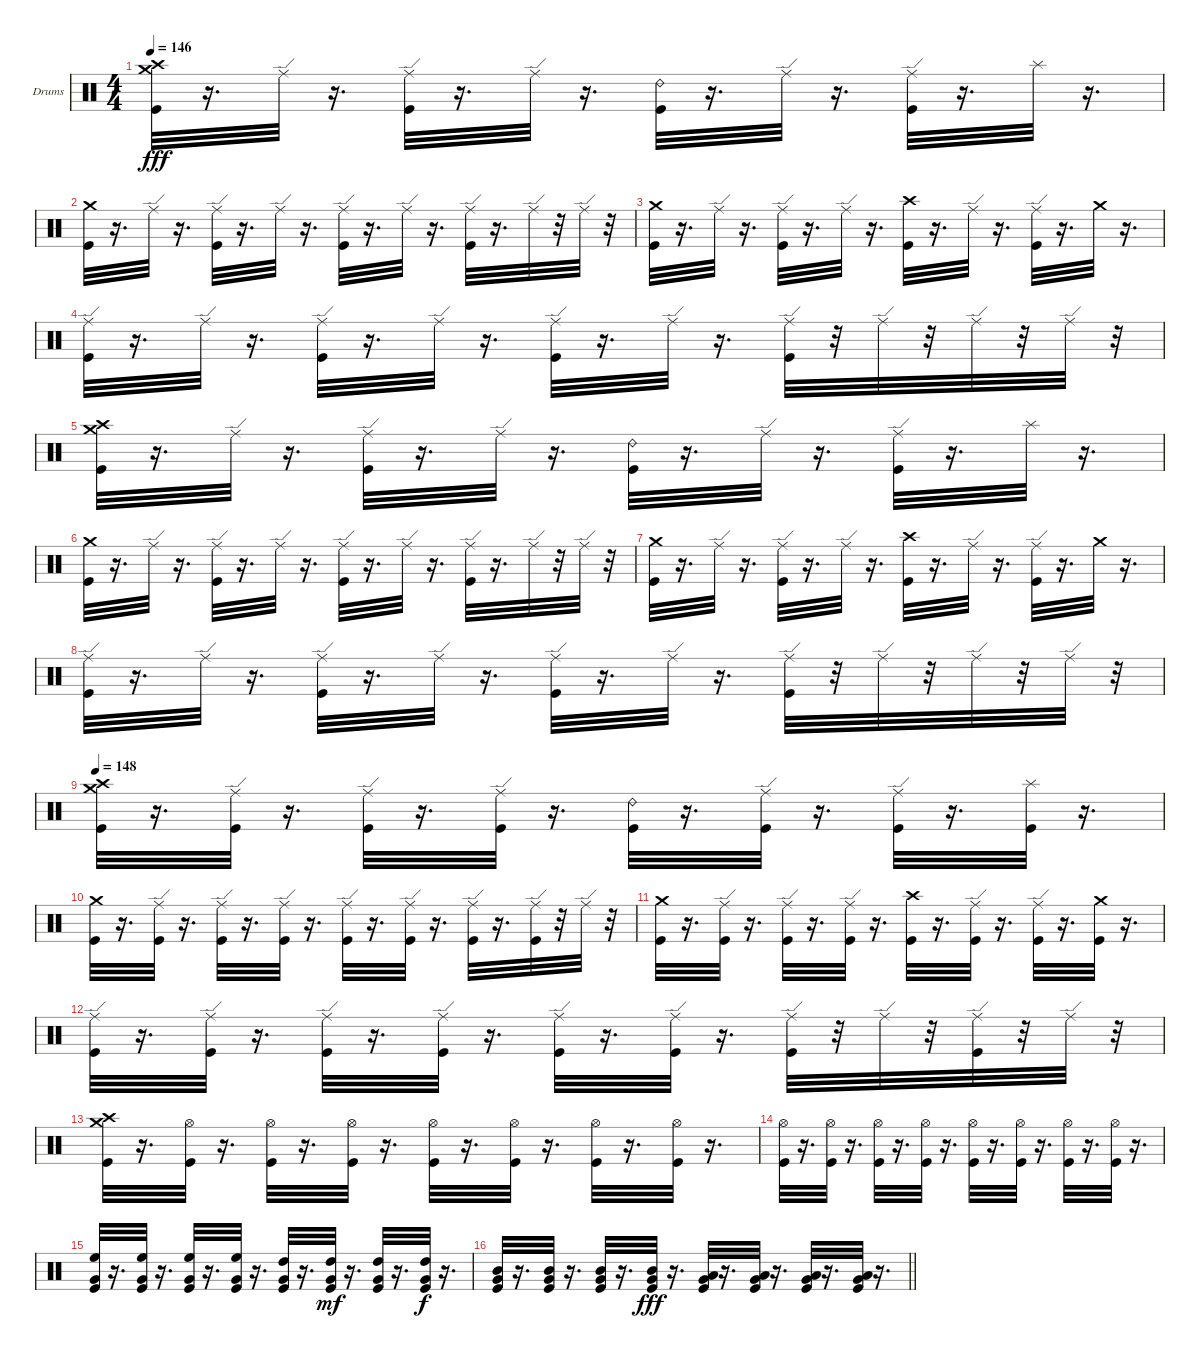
\bracketExtendMode groupsimilarinstruments
\firstSystemTrackNameOrientation horizontal
\otherSystemsTrackNameOrientation horizontal
\track ("Dave McClain" "Drums") {mute instrument percussion}
\staff {score}
\articulation defaults
\ts (4 4)
\tempo 146
\clef neutral
\ks c
("Crash high (hit)" "Crash medium (hit)" "Kick (hit)").32{dy fff} r.16{d} "Ride (edge)".32 r.16{d} ("Kick (hit)" "Ride (edge)").32 r.16{d} "Ride (edge)".32 r.16{d} ("Ride (bell) 2" "Kick (hit)").32 r.16{d} "Ride (edge)".32 r.16{d} ("Kick (hit)" "Ride (edge)").32 r.16{d} "Splash (hit)".32 r.16{d} |
("Crash medium (hit)" "Kick (hit)").32 r.16{d} "Ride (edge)".32 r.16{d} ("Kick (hit)" "Ride (edge)").32 r.16{d} "Ride (edge)".32 r.16{d} ("Kick (hit)" "Ride (edge)").32 r.16{d} "Ride (edge)".32 r.16{d} ("Kick (hit)" "Ride (edge)").32 r.16{d} "Ride (edge)".32 r.32 "Ride (edge)".32 r.32 |
("Crash medium (hit)" "Kick (hit)").32 r.16{d} "Ride (edge)".32 r.16{d} ("Kick (hit)" "Ride (edge)").32 r.16{d} "Ride (edge)".32 r.16{d} ("Crash high (hit)" "Kick (hit)").32 r.16{d} "Ride (edge)".32 r.16{d} ("Kick (hit)" "Ride (edge)").32 r.16{d} "Crash medium (hit)".32 r.16{d} |
("Ride (edge)" "Kick (hit)").32 r.16{d} "Ride (edge)".32 r.16{d} ("Kick (hit)" "Ride (edge)").32 r.16{d} "Ride (edge)".32 r.16{d} ("Kick (hit)" "Ride (edge)").32 r.16{d} "Ride (edge)".32 r.16{d} ("Kick (hit)" "Ride (edge)").32 r.32 "Ride (edge)".32 r.32 "Ride (edge)".32 r.32 "Ride (edge)".32 r.32 |
("Crash high (hit)" "Crash medium (hit)" "Kick (hit)").32 r.16{d} "Ride (edge)".32 r.16{d} ("Kick (hit)" "Ride (edge)").32 r.16{d} "Ride (edge)".32 r.16{d} ("Ride (bell) 2" "Kick (hit)").32 r.16{d} "Ride (edge)".32 r.16{d} ("Kick (hit)" "Ride (edge)").32 r.16{d} "Splash (hit)".32 r.16{d} |
("Crash medium (hit)" "Kick (hit)").32 r.16{d} "Ride (edge)".32 r.16{d} ("Kick (hit)" "Ride (edge)").32 r.16{d} "Ride (edge)".32 r.16{d} ("Kick (hit)" "Ride (edge)").32 r.16{d} "Ride (edge)".32 r.16{d} ("Kick (hit)" "Ride (edge)").32 r.16{d} "Ride (edge)".32 r.32 "Ride (edge)".32 r.32 |
("Crash medium (hit)" "Kick (hit)").32 r.16{d} "Ride (edge)".32 r.16{d} ("Kick (hit)" "Ride (edge)").32 r.16{d} "Ride (edge)".32 r.16{d} ("Crash high (hit)" "Kick (hit)").32 r.16{d} "Ride (edge)".32 r.16{d} ("Kick (hit)" "Ride (edge)").32 r.16{d} "Crash medium (hit)".32 r.16{d} |
("Ride (edge)" "Kick (hit)").32 r.16{d} "Ride (edge)".32 r.16{d} ("Kick (hit)" "Ride (edge)").32 r.16{d} "Ride (edge)".32 r.16{d} ("Kick (hit)" "Ride (edge)").32 r.16{d} "Ride (edge)".32 r.16{d} ("Kick (hit)" "Ride (edge)").32 r.32 "Ride (edge)".32 r.32 "Ride (edge)".32 r.32 "Ride (edge)".32 r.32 |
\tempo 148
("Crash high (hit)" "Crash medium (hit)" "Kick (hit)").32 r.16{d} ("Kick (hit)" "Ride (edge)").32 r.16{d} ("Kick (hit)" "Ride (edge)").32 r.16{d} ("Kick (hit)" "Ride (edge)").32 r.16{d} ("Ride (bell) 2" "Kick (hit)").32 r.16{d} ("Kick (hit)" "Ride (edge)").32 r.16{d} ("Kick (hit)" "Ride (edge)").32 r.16{d} ("Kick (hit)" "Splash (hit)").32 r.16{d} |
("Crash medium (hit)" "Kick (hit)").32 r.16{d} ("Kick (hit)" "Ride (edge)").32 r.16{d} ("Kick (hit)" "Ride (edge)").32 r.16{d} ("Kick (hit)" "Ride (edge)").32 r.16{d} ("Kick (hit)" "Ride (edge)").32 r.16{d} ("Kick (hit)" "Ride (edge)").32 r.16{d} ("Kick (hit)" "Ride (edge)").32 r.16{d} ("Kick (hit)" "Ride (edge)").32 r.32 "Ride (edge)".32 r.32 |
("Crash medium (hit)" "Kick (hit)").32 r.16{d} ("Kick (hit)" "Ride (edge)").32 r.16{d} ("Kick (hit)" "Ride (edge)").32 r.16{d} ("Kick (hit)" "Ride (edge)").32 r.16{d} ("Crash high (hit)" "Kick (hit)").32 r.16{d} ("Kick (hit)" "Ride (edge)").32 r.16{d} ("Kick (hit)" "Ride (edge)").32 r.16{d} ("Kick (hit)" "Crash medium (hit)").32 r.16{d} |
("Ride (edge)" "Kick (hit)").32 r.16{d} ("Kick (hit)" "Ride (edge)").32 r.16{d} ("Kick (hit)" "Ride (edge)").32 r.16{d} ("Kick (hit)" "Ride (edge)").32 r.16{d} ("Kick (hit)" "Ride (edge)").32 r.16{d} ("Kick (hit)" "Ride (edge)").32 r.16{d} ("Kick (hit)" "Ride (edge)").32 r.32 "Ride (edge)".32 r.32 ("Kick (hit)" "Ride (edge)").32 r.32 "Ride (edge)".32 r.32 |
("Crash high (hit)" "Crash medium (hit)" "Kick (hit)").32 r.16{d} ("Hi-Hat (open)" "Kick (hit)").32 r.16{d} ("Hi-Hat (open)" "Kick (hit)").32 r.16{d} ("Hi-Hat (open)" "Kick (hit)").32 r.16{d} ("Hi-Hat (open)" "Kick (hit)").32 r.16{d} ("Hi-Hat (open)" "Kick (hit)").32 r.16{d} ("Hi-Hat (open)" "Kick (hit)").32 r.16{d} ("Hi-Hat (open)" "Kick (hit)").32 r.16{d} |
("Hi-Hat (open)" "Kick (hit)").32 r.16{d} ("Hi-Hat (open)" "Kick (hit)").32 r.16{d} ("Hi-Hat (open)" "Kick (hit)").32 r.16{d} ("Hi-Hat (open)" "Kick (hit)").32 r.16{d} ("Hi-Hat (open)" "Kick (hit)").32 r.16{d} ("Hi-Hat (open)" "Kick (hit)").32 r.16{d} ("Hi-Hat (open)" "Kick (hit)").32 r.16{d} ("Hi-Hat (open)" "Kick (hit)").32 r.16{d} |
("Kick (hit)" "High Floor Tom (hit)" "Very Low Tom (hit)").32 r.16{d} ("Kick (hit)" "High Floor Tom (hit)" "Very Low Tom (hit)").32 r.16{d} ("Kick (hit)" "High Floor Tom (hit)" "Very Low Tom (hit)").32 r.16{d} ("Kick (hit)" "High Floor Tom (hit)" "Very Low Tom (hit)").32 r.16{d} ("Kick (hit)" "High Tom (hit)" "Very Low Tom (hit)").32 r.16{d} ("Very Low Tom (hit)" "Kick (hit)" "High Tom (hit)").32{dy mf} r.16{d} ("Very Low Tom (hit)" "Kick (hit)" "High Tom (hit)").32 r.16{d} ("Very Low Tom (hit)" "Kick (hit)" "High Tom (hit)").32{dy f} r.16{d} |
\barLineRight lightlight
("Very Low Tom (hit)" "Kick (hit)" "Mid Tom (hit)").32 r.16{d} ("Very Low Tom (hit)" "Kick (hit)" "Mid Tom (hit)").32 r.16{d} ("Very Low Tom (hit)" "Kick (hit)" "Mid Tom (hit)").32 r.16{d} ("Kick (hit)" "Mid Tom (hit)" "Very Low Tom (hit)").32{dy fff} r.16{d} ("Kick (hit)" "Low Tom (hit)" "Very Low Tom (hit)").32 r.16{d} ("Kick (hit)" "Low Tom (hit)" "Very Low Tom (hit)").32 r.16{d} ("Kick (hit)" "Low Tom (hit)" "Very Low Tom (hit)").32 r.16{d} ("Kick (hit)" "Low Tom (hit)" "Very Low Tom (hit)").32 r.16{d}
